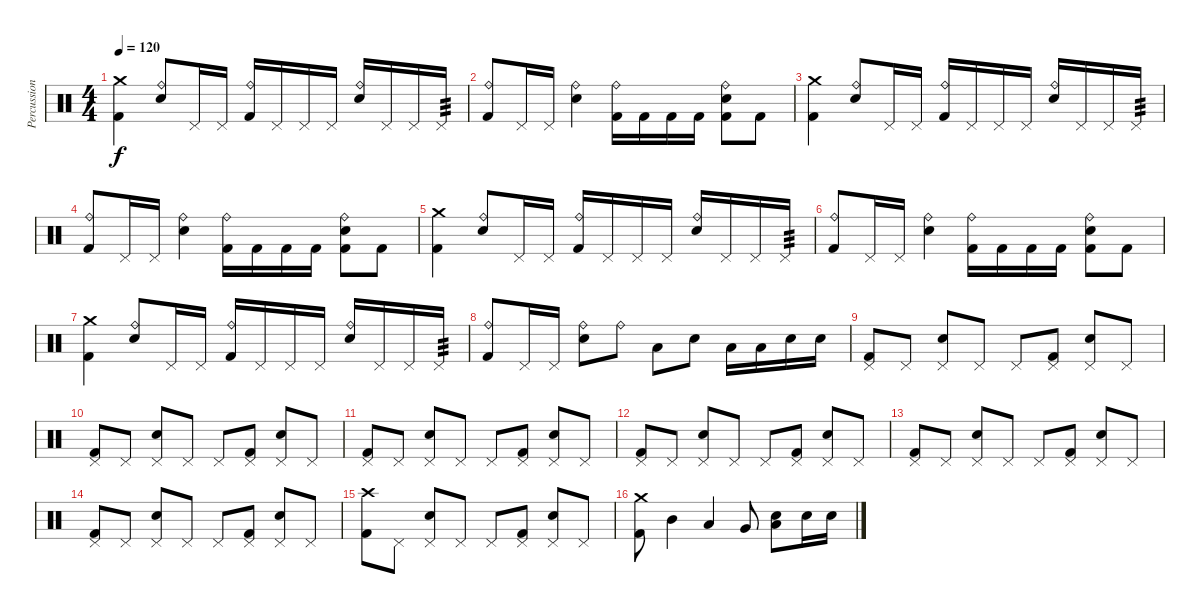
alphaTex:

\track ("Percussion" "Percussion") {instrument percussion}
\staff {score}
\articulation defaults
\ts (4 4)
\tempo 120
\clef neutral
\ks c
("Kick (hit) 2" "Crash medium (hit)").4{dy f} ("Electric Snare (hit)" "Ride (bell)").8 "Pedal Hi-Hat (hit)".16 "Pedal Hi-Hat (hit)".16 ("Kick (hit) 2" "Ride (bell)").16 "Pedal Hi-Hat (hit)".16 "Pedal Hi-Hat (hit)".16 "Pedal Hi-Hat (hit)".16 ("Electric Snare (hit)" "Ride (bell)").16 "Pedal Hi-Hat (hit)".16 "Pedal Hi-Hat (hit)".16 "Pedal Hi-Hat (hit)".16{tp 3} |
("Kick (hit) 2" "Ride (bell)").8 "Pedal Hi-Hat (hit)".16 "Pedal Hi-Hat (hit)".16 ("Electric Snare (hit)" "Ride (bell)").4 ("Kick (hit) 2" "Ride (bell)").16 "Kick (hit) 2".16 "Kick (hit) 2".16 "Kick (hit) 2".16 ("Kick (hit) 2" "Electric Snare (hit)" "Ride (bell)").8 "Kick (hit) 2".8 |
("Kick (hit) 2" "Crash medium (hit)").4 ("Electric Snare (hit)" "Ride (bell)").8 "Pedal Hi-Hat (hit)".16 "Pedal Hi-Hat (hit)".16 ("Kick (hit) 2" "Ride (bell)").16 "Pedal Hi-Hat (hit)".16 "Pedal Hi-Hat (hit)".16 "Pedal Hi-Hat (hit)".16 ("Electric Snare (hit)" "Ride (bell)").16 "Pedal Hi-Hat (hit)".16 "Pedal Hi-Hat (hit)".16 "Pedal Hi-Hat (hit)".16{tp 3} |
("Kick (hit) 2" "Ride (bell)").8 "Pedal Hi-Hat (hit)".16 "Pedal Hi-Hat (hit)".16 ("Electric Snare (hit)" "Ride (bell)").4 ("Kick (hit) 2" "Ride (bell)").16 "Kick (hit) 2".16 "Kick (hit) 2".16 "Kick (hit) 2".16 ("Kick (hit) 2" "Electric Snare (hit)" "Ride (bell)").8 "Kick (hit) 2".8 |
("Kick (hit) 2" "Crash medium (hit)").4 ("Electric Snare (hit)" "Ride (bell)").8 "Pedal Hi-Hat (hit)".16 "Pedal Hi-Hat (hit)".16 ("Kick (hit) 2" "Ride (bell)").16 "Pedal Hi-Hat (hit)".16 "Pedal Hi-Hat (hit)".16 "Pedal Hi-Hat (hit)".16 ("Electric Snare (hit)" "Ride (bell)").16 "Pedal Hi-Hat (hit)".16 "Pedal Hi-Hat (hit)".16 "Pedal Hi-Hat (hit)".16{tp 3} |
("Kick (hit) 2" "Ride (bell)").8 "Pedal Hi-Hat (hit)".16 "Pedal Hi-Hat (hit)".16 ("Electric Snare (hit)" "Ride (bell)").4 ("Kick (hit) 2" "Ride (bell)").16 "Kick (hit) 2".16 "Kick (hit) 2".16 "Kick (hit) 2".16 ("Kick (hit) 2" "Electric Snare (hit)" "Ride (bell)").8 "Kick (hit) 2".8 |
("Kick (hit) 2" "Crash medium (hit)").4 ("Electric Snare (hit)" "Ride (bell)").8 "Pedal Hi-Hat (hit)".16 "Pedal Hi-Hat (hit)".16 ("Kick (hit) 2" "Ride (bell)").16 "Pedal Hi-Hat (hit)".16 "Pedal Hi-Hat (hit)".16 "Pedal Hi-Hat (hit)".16 ("Electric Snare (hit)" "Ride (bell)").16 "Pedal Hi-Hat (hit)".16 "Pedal Hi-Hat (hit)".16 "Pedal Hi-Hat (hit)".16{tp 3} |
("Kick (hit) 2" "Ride (bell)").8 "Pedal Hi-Hat (hit)".16 "Pedal Hi-Hat (hit)".16 ("Electric Snare (hit)" "Ride (bell)").8 "Ride (bell)".8 "Low Tom (hit)".8 "Electric Snare (hit)".8 "Low Tom (hit)".16 "Low Tom (hit)".16 "Electric Snare (hit)".16 "Electric Snare (hit)".16 |
("Kick (hit) 2" "Pedal Hi-Hat (hit)").8 "Pedal Hi-Hat (hit)".8 ("Electric Snare (hit)" "Pedal Hi-Hat (hit)").8 "Pedal Hi-Hat (hit)".8 "Pedal Hi-Hat (hit)".8 ("Kick (hit) 2" "Pedal Hi-Hat (hit)").8 ("Electric Snare (hit)" "Pedal Hi-Hat (hit)").8 "Pedal Hi-Hat (hit)".8 |
("Kick (hit) 2" "Pedal Hi-Hat (hit)").8 "Pedal Hi-Hat (hit)".8 ("Electric Snare (hit)" "Pedal Hi-Hat (hit)").8 "Pedal Hi-Hat (hit)".8 "Pedal Hi-Hat (hit)".8 ("Kick (hit) 2" "Pedal Hi-Hat (hit)").8 ("Electric Snare (hit)" "Pedal Hi-Hat (hit)").8 "Pedal Hi-Hat (hit)".8 |
("Kick (hit) 2" "Pedal Hi-Hat (hit)").8 "Pedal Hi-Hat (hit)".8 ("Electric Snare (hit)" "Pedal Hi-Hat (hit)").8 "Pedal Hi-Hat (hit)".8 "Pedal Hi-Hat (hit)".8 ("Kick (hit) 2" "Pedal Hi-Hat (hit)").8 ("Electric Snare (hit)" "Pedal Hi-Hat (hit)").8 "Pedal Hi-Hat (hit)".8 |
("Kick (hit) 2" "Pedal Hi-Hat (hit)").8 "Pedal Hi-Hat (hit)".8 ("Electric Snare (hit)" "Pedal Hi-Hat (hit)").8 "Pedal Hi-Hat (hit)".8 "Pedal Hi-Hat (hit)".8 ("Kick (hit) 2" "Pedal Hi-Hat (hit)").8 ("Electric Snare (hit)" "Pedal Hi-Hat (hit)").8 "Pedal Hi-Hat (hit)".8 |
("Kick (hit) 2" "Pedal Hi-Hat (hit)").8 "Pedal Hi-Hat (hit)".8 ("Electric Snare (hit)" "Pedal Hi-Hat (hit)").8 "Pedal Hi-Hat (hit)".8 "Pedal Hi-Hat (hit)".8 ("Kick (hit) 2" "Pedal Hi-Hat (hit)").8 ("Electric Snare (hit)" "Pedal Hi-Hat (hit)").8 "Pedal Hi-Hat (hit)".8 |
("Kick (hit) 2" "Pedal Hi-Hat (hit)").8 "Pedal Hi-Hat (hit)".8 ("Electric Snare (hit)" "Pedal Hi-Hat (hit)").8 "Pedal Hi-Hat (hit)".8 "Pedal Hi-Hat (hit)".8 ("Kick (hit) 2" "Pedal Hi-Hat (hit)").8 ("Electric Snare (hit)" "Pedal Hi-Hat (hit)").8 "Pedal Hi-Hat (hit)".8 |
("Kick (hit) 2" "Crash high (hit)").8 "Pedal Hi-Hat (hit)".8 ("Electric Snare (hit)" "Pedal Hi-Hat (hit)").8 "Pedal Hi-Hat (hit)".8 "Pedal Hi-Hat (hit)".8 ("Kick (hit) 2" "Pedal Hi-Hat (hit)").8 ("Electric Snare (hit)" "Pedal Hi-Hat (hit)").8 "Pedal Hi-Hat (hit)".8 |
("Kick (hit) 2" "Crash medium (hit)").8 "Mid Tom (hit)".4 "Low Tom (hit)".4 "Very Low Tom (hit)".8 ("Low Floor Tom (hit)" "Electric Snare (hit)").8 "Electric Snare (hit)".16 "Electric Snare (hit)".16
